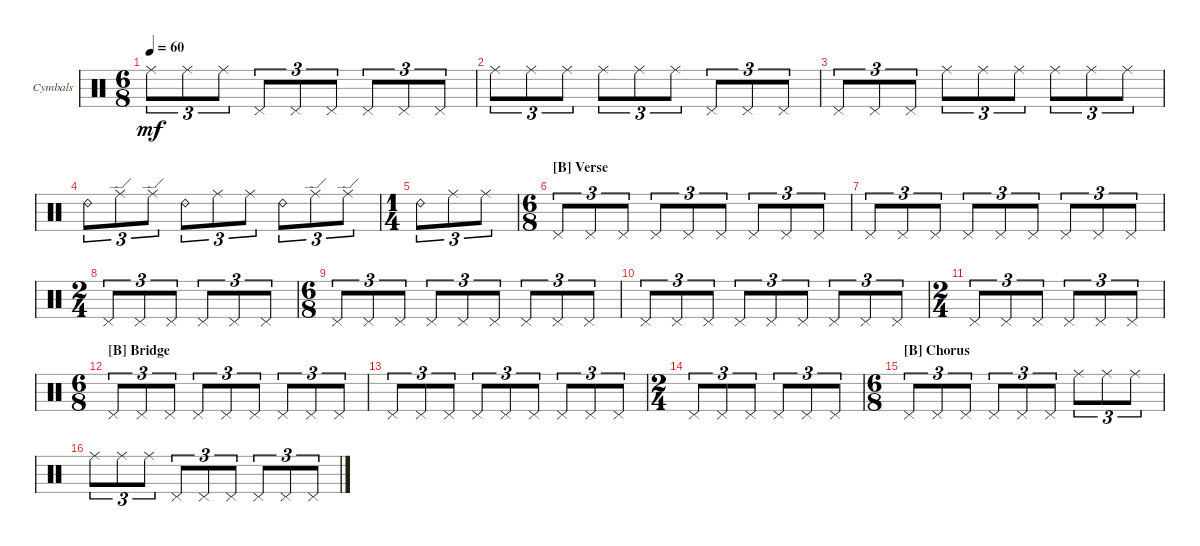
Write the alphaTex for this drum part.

\defaultSystemsLayout 4
\bracketExtendMode groupsimilarinstruments
\firstSystemTrackNameOrientation horizontal
\otherSystemsTrackNameOrientation horizontal
\track ("Cymbals" "Cymbals") {instrument percussion}
\staff {score}
\articulation defaults
\ts (6 8)
\tempo 60
\clef neutral
\scale
0.262911
\ks c "Ride (middle)".8{tu (3 2) dy mf} "Ride (middle)".8{tu (3 2)} "Ride (middle)".8{tu (3 2)} "Pedal Hi-Hat (hit)".8{tu (3 2)} "Pedal Hi-Hat (hit)".8{tu (3 2)} "Pedal Hi-Hat (hit)".8{tu (3 2)} "Pedal Hi-Hat (hit)".8{tu (3 2)} "Pedal Hi-Hat (hit)".8{tu (3 2)} "Pedal Hi-Hat (hit)".8{tu (3 2)}
|
\scale
0.262911 "Ride (middle)".8{tu (3 2)} "Ride (middle)".8{tu (3 2)} "Ride (middle)".8{tu (3 2)} "Ride (middle)".8{tu (3 2)} "Ride (middle)".8{tu (3 2)} "Ride (middle)".8{tu (3 2)} "Pedal Hi-Hat (hit)".8{tu (3 2)} "Pedal Hi-Hat (hit)".8{tu (3 2)} "Pedal Hi-Hat (hit)".8{tu (3 2)} |
\scale
0.262911 "Pedal Hi-Hat (hit)".8{tu (3 2)} "Pedal Hi-Hat (hit)".8{tu (3 2)} "Pedal Hi-Hat (hit)".8{tu (3 2)} "Ride (middle)".8{tu (3 2)} "Ride (middle)".8{tu (3 2)} "Ride (middle)".8{tu (3 2)} "Ride (middle)".8{tu (3 2)} "Ride (middle)".8{tu (3 2)} "Ride (middle)".8{tu (3 2)} |
\scale
0.262911 "Ride (bell) 2".8{tu (3 2)} "Ride (edge)".8{tu (3 2)} "Ride (edge)".8{tu (3 2)} "Ride (bell) 2".8{tu (3 2)} "Ride (middle)".8{tu (3 2)} "Ride (middle)".8{tu (3 2)} "Ride (bell) 2".8{tu (3 2)} "Ride (edge)".8{tu (3 2)} "Ride (edge)".8{tu (3 2)} |
\ts (1 4)
\scale
0.474178 "Ride (bell) 2".8{tu (3 2)} "Ride (middle)".8{tu (3 2)} "Ride (middle)".8{tu (3 2)} |
\ts (6 8)
\section ("B" "Verse")
\scale
0.391473 "Pedal Hi-Hat (hit)".8{tu (3 2)} "Pedal Hi-Hat (hit)".8{tu (3 2)} "Pedal Hi-Hat (hit)".8{tu (3 2)} "Pedal Hi-Hat (hit)".8{tu (3 2)} "Pedal Hi-Hat (hit)".8{tu (3 2)} "Pedal Hi-Hat (hit)".8{tu (3 2)} "Pedal Hi-Hat (hit)".8{tu (3 2)} "Pedal Hi-Hat (hit)".8{tu (3 2)} "Pedal Hi-Hat (hit)".8{tu (3 2)} |
\scale
0.217054 "Pedal Hi-Hat (hit)".8{tu (3 2)} "Pedal Hi-Hat (hit)".8{tu (3 2)} "Pedal Hi-Hat (hit)".8{tu (3 2)} "Pedal Hi-Hat (hit)".8{tu (3 2)} "Pedal Hi-Hat (hit)".8{tu (3 2)} "Pedal Hi-Hat (hit)".8{tu (3 2)} "Pedal Hi-Hat (hit)".8{tu (3 2)} "Pedal Hi-Hat (hit)".8{tu (3 2)} "Pedal Hi-Hat (hit)".8{tu (3 2)} |
\ts (2 4)
\scale
0.391473 "Pedal Hi-Hat (hit)".8{tu (3 2)} "Pedal Hi-Hat (hit)".8{tu (3 2)} "Pedal Hi-Hat (hit)".8{tu (3 2)} "Pedal Hi-Hat (hit)".8{tu (3 2)} "Pedal Hi-Hat (hit)".8{tu (3 2)} "Pedal Hi-Hat (hit)".8{tu (3 2)} |
\ts (6 8)
\scale
0.391473 "Pedal Hi-Hat (hit)".8{tu (3 2)} "Pedal Hi-Hat (hit)".8{tu (3 2)} "Pedal Hi-Hat (hit)".8{tu (3 2)} "Pedal Hi-Hat (hit)".8{tu (3 2)} "Pedal Hi-Hat (hit)".8{tu (3 2)} "Pedal Hi-Hat (hit)".8{tu (3 2)} "Pedal Hi-Hat (hit)".8{tu (3 2)} "Pedal Hi-Hat (hit)".8{tu (3 2)} "Pedal Hi-Hat (hit)".8{tu (3 2)} |
\scale
0.217054 "Pedal Hi-Hat (hit)".8{tu (3 2)} "Pedal Hi-Hat (hit)".8{tu (3 2)} "Pedal Hi-Hat (hit)".8{tu (3 2)} "Pedal Hi-Hat (hit)".8{tu (3 2)} "Pedal Hi-Hat (hit)".8{tu (3 2)} "Pedal Hi-Hat (hit)".8{tu (3 2)} "Pedal Hi-Hat (hit)".8{tu (3 2)} "Pedal Hi-Hat (hit)".8{tu (3 2)} "Pedal Hi-Hat (hit)".8{tu (3 2)} |
\ts (2 4)
\scale
0.391473 "Pedal Hi-Hat (hit)".8{tu (3 2)} "Pedal Hi-Hat (hit)".8{tu (3 2)} "Pedal Hi-Hat (hit)".8{tu (3 2)} "Pedal Hi-Hat (hit)".8{tu (3 2)} "Pedal Hi-Hat (hit)".8{tu (3 2)} "Pedal Hi-Hat (hit)".8{tu (3 2)} |
\ts (6 8)
\section ("B" "Bridge")
\scale
0.391473 "Pedal Hi-Hat (hit)".8{tu (3 2)} "Pedal Hi-Hat (hit)".8{tu (3 2)} "Pedal Hi-Hat (hit)".8{tu (3 2)} "Pedal Hi-Hat (hit)".8{tu (3 2)} "Pedal Hi-Hat (hit)".8{tu (3 2)} "Pedal Hi-Hat (hit)".8{tu (3 2)} "Pedal Hi-Hat (hit)".8{tu (3 2)} "Pedal Hi-Hat (hit)".8{tu (3 2)} "Pedal Hi-Hat (hit)".8{tu (3 2)} |
\scale
0.217054 "Pedal Hi-Hat (hit)".8{tu (3 2)} "Pedal Hi-Hat (hit)".8{tu (3 2)} "Pedal Hi-Hat (hit)".8{tu (3 2)} "Pedal Hi-Hat (hit)".8{tu (3 2)} "Pedal Hi-Hat (hit)".8{tu (3 2)} "Pedal Hi-Hat (hit)".8{tu (3 2)} "Pedal Hi-Hat (hit)".8{tu (3 2)} "Pedal Hi-Hat (hit)".8{tu (3 2)} "Pedal Hi-Hat (hit)".8{tu (3 2)} |
\ts (2 4)
\scale
0.391473 "Pedal Hi-Hat (hit)".8{tu (3 2)} "Pedal Hi-Hat (hit)".8{tu (3 2)} "Pedal Hi-Hat (hit)".8{tu (3 2)} "Pedal Hi-Hat (hit)".8{tu (3 2)} "Pedal Hi-Hat (hit)".8{tu (3 2)} "Pedal Hi-Hat (hit)".8{tu (3 2)} |
\ts (6 8)
\section ("B" "Chorus")
\scale
0.474178 "Pedal Hi-Hat (hit)".8{tu (3 2)} "Pedal Hi-Hat (hit)".8{tu (3 2)} "Pedal Hi-Hat (hit)".8{tu (3 2)} "Pedal Hi-Hat (hit)".8{tu (3 2)} "Pedal Hi-Hat (hit)".8{tu (3 2)} "Pedal Hi-Hat (hit)".8{tu (3 2)} "Ride (middle)".8{tu (3 2)} "Ride (middle)".8{tu (3 2)} "Ride (middle)".8{tu (3 2)} |
\scale
0.262911 "Ride (middle)".8{tu (3 2)} "Ride (middle)".8{tu (3 2)} "Ride (middle)".8{tu (3 2)} "Pedal Hi-Hat (hit)".8{tu (3 2)} "Pedal Hi-Hat (hit)".8{tu (3 2)} "Pedal Hi-Hat (hit)".8{tu (3 2)} "Pedal Hi-Hat (hit)".8{tu (3 2)} "Pedal Hi-Hat (hit)".8{tu (3 2)} "Pedal Hi-Hat (hit)".8{tu (3 2)}
